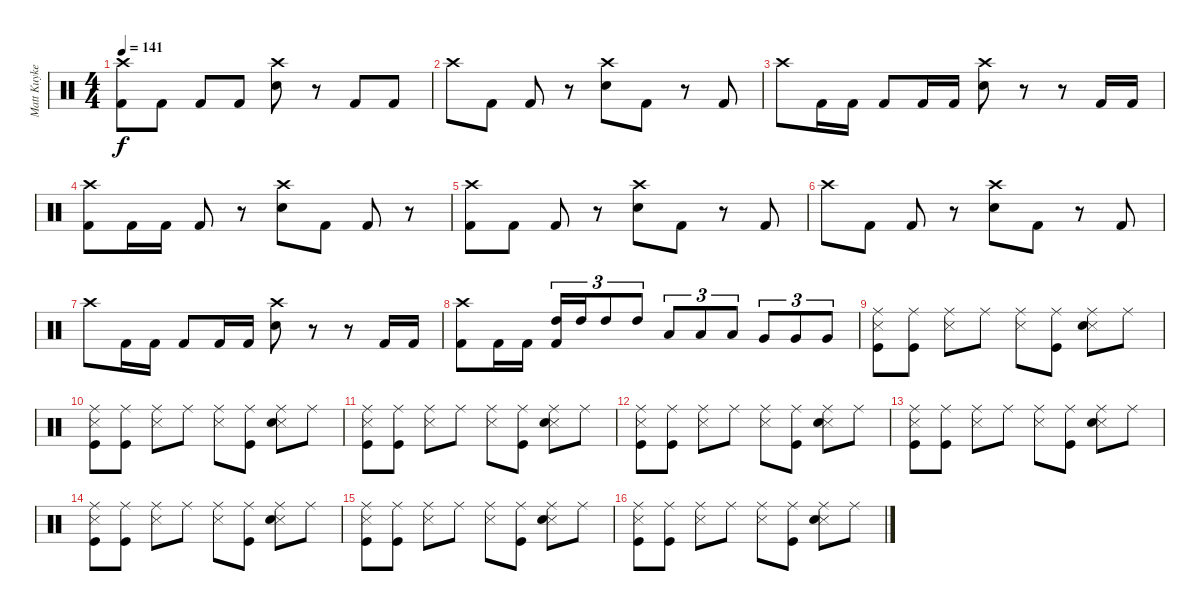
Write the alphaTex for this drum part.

\track ("Matt Kuykendall" "Matt Kuyke") {instrument percussion}
\staff {score}
\articulation defaults
\ts (4 4)
\tempo 141
\clef neutral
\ks c
("Crash high (hit)" "Kick (hit) 2").8{dy f} "Kick (hit) 2".8 "Kick (hit) 2".8 "Kick (hit) 2".8 ("Crash high (hit)" "Electric Snare (hit)").8 r.8 "Kick (hit) 2".8 "Kick (hit) 2".8 |
"Crash high (hit)".8 "Kick (hit) 2".8 "Kick (hit) 2".8 r.8 ("Crash high (hit)" "Electric Snare (hit)").8 "Kick (hit) 2".8 r.8 "Kick (hit) 2".8 |
"Crash high (hit)".8 "Kick (hit) 2".16 "Kick (hit) 2".16 "Kick (hit) 2".8 "Kick (hit) 2".16 "Kick (hit) 2".16 ("Crash high (hit)" "Electric Snare (hit)").8 r.8 r.8 "Kick (hit) 2".16 "Kick (hit) 2".16 |
("Crash high (hit)" "Kick (hit) 2").8 "Kick (hit) 2".16 "Kick (hit) 2".16 "Kick (hit) 2".8 r.8 ("Crash high (hit)" "Electric Snare (hit)").8 "Kick (hit) 2".8 "Kick (hit) 2".8 r.8 |
("Crash high (hit)" "Kick (hit) 2").8 "Kick (hit) 2".8 "Kick (hit) 2".8 r.8 ("Crash high (hit)" "Electric Snare (hit)").8 "Kick (hit) 2".8 r.8 "Kick (hit) 2".8 |
"Crash high (hit)".8 "Kick (hit) 2".8 "Kick (hit) 2".8 r.8 ("Crash high (hit)" "Electric Snare (hit)").8 "Kick (hit) 2".8 r.8 "Kick (hit) 2".8 |
"Crash high (hit)".8 "Kick (hit) 2".16 "Kick (hit) 2".16 "Kick (hit) 2".8 "Kick (hit) 2".16 "Kick (hit) 2".16 ("Crash high (hit)" "Electric Snare (hit)").8 r.8 r.8 "Kick (hit) 2".16 "Kick (hit) 2".16 |
("Crash high (hit)" "Kick (hit) 2").8 "Kick (hit) 2".16 "Kick (hit) 2".16 ("High Tom (hit)" "Kick (hit) 2").16{tu (3 2)} "High Tom (hit)".16{tu (3 2)} "High Tom (hit)".8{tu (3 2)} "High Tom (hit)".8{tu (3 2)} "Low Tom (hit)".8{tu (3 2)} "Low Tom (hit)".8{tu (3 2)} "Low Tom (hit)".8{tu (3 2)} "Very Low Tom (hit)".8{tu (3 2)} "Very Low Tom (hit)".8{tu (3 2)} "Very Low Tom (hit)".8{tu (3 2)} |
("Snare (side stick) 3" "Ride (middle)" "Kick (hit)").8 ("Ride (middle)" "Kick (hit)").8 ("Snare (side stick) 3" "Ride (middle)").8 "Ride (middle)".8 ("Snare (side stick) 3" "Ride (middle)").8 ("Ride (middle)" "Kick (hit)").8 ("Snare (side stick) 3" "Ride (middle)" "Snare (hit) 2").8 "Ride (middle)".8 |
("Snare (side stick) 3" "Ride (middle)" "Kick (hit)").8 ("Ride (middle)" "Kick (hit)").8 ("Snare (side stick) 3" "Ride (middle)").8 "Ride (middle)".8 ("Snare (side stick) 3" "Ride (middle)").8 ("Ride (middle)" "Kick (hit)").8 ("Snare (side stick) 3" "Ride (middle)" "Snare (hit) 2").8 "Ride (middle)".8 |
("Snare (side stick) 3" "Ride (middle)" "Kick (hit)").8 ("Ride (middle)" "Kick (hit)").8 ("Snare (side stick) 3" "Ride (middle)").8 "Ride (middle)".8 ("Snare (side stick) 3" "Ride (middle)").8 ("Ride (middle)" "Kick (hit)").8 ("Snare (side stick) 3" "Ride (middle)" "Snare (hit) 2").8 "Ride (middle)".8 |
("Snare (side stick) 3" "Ride (middle)" "Kick (hit)").8 ("Ride (middle)" "Kick (hit)").8 ("Snare (side stick) 3" "Ride (middle)").8 "Ride (middle)".8 ("Snare (side stick) 3" "Ride (middle)").8 ("Ride (middle)" "Kick (hit)").8 ("Snare (side stick) 3" "Ride (middle)" "Snare (hit) 2").8 "Ride (middle)".8 |
("Snare (side stick) 3" "Ride (middle)" "Kick (hit)").8 ("Ride (middle)" "Kick (hit)").8 ("Snare (side stick) 3" "Ride (middle)").8 "Ride (middle)".8 ("Snare (side stick) 3" "Ride (middle)").8 ("Ride (middle)" "Kick (hit)").8 ("Snare (side stick) 3" "Ride (middle)" "Snare (hit) 2").8 "Ride (middle)".8 |
("Snare (side stick) 3" "Ride (middle)" "Kick (hit)").8 ("Ride (middle)" "Kick (hit)").8 ("Snare (side stick) 3" "Ride (middle)").8 "Ride (middle)".8 ("Snare (side stick) 3" "Ride (middle)").8 ("Ride (middle)" "Kick (hit)").8 ("Snare (side stick) 3" "Ride (middle)" "Snare (hit) 2").8 "Ride (middle)".8 |
("Snare (side stick) 3" "Ride (middle)" "Kick (hit)").8 ("Ride (middle)" "Kick (hit)").8 ("Snare (side stick) 3" "Ride (middle)").8 "Ride (middle)".8 ("Snare (side stick) 3" "Ride (middle)").8 ("Ride (middle)" "Kick (hit)").8 ("Snare (side stick) 3" "Ride (middle)" "Snare (hit) 2").8 "Ride (middle)".8 |
("Snare (side stick) 3" "Ride (middle)" "Kick (hit)").8 ("Ride (middle)" "Kick (hit)").8 ("Snare (side stick) 3" "Ride (middle)").8 "Ride (middle)".8 ("Snare (side stick) 3" "Ride (middle)").8 ("Ride (middle)" "Kick (hit)").8 ("Snare (side stick) 3" "Ride (middle)" "Snare (hit) 2").8 "Ride (middle)".8
